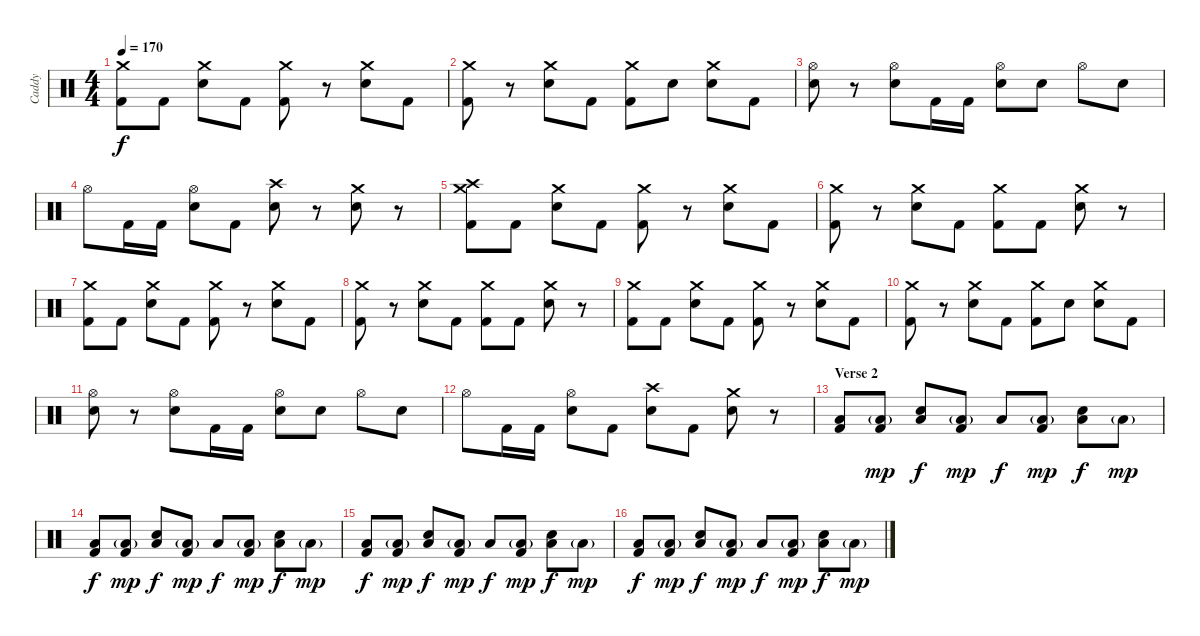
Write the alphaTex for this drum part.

\track ("Caddy" "Caddy") {instrument percussion}
\staff {score}
\articulation defaults
\ts (4 4)
\tempo 170
\clef neutral
\ks c
("Crash medium (hit)" "Kick (hit) 2").8{dy f} "Kick (hit) 2".8 ("Crash medium (hit)" "Electric Snare (hit)").8 "Kick (hit) 2".8 ("Crash medium (hit)" "Kick (hit) 2").8 r.8 ("Crash medium (hit)" "Electric Snare (hit)").8 "Kick (hit) 2".8 |
("Crash medium (hit)" "Kick (hit) 2").8 r.8 ("Crash medium (hit)" "Electric Snare (hit)").8 "Kick (hit) 2".8 ("Crash medium (hit)" "Kick (hit) 2").8 "Electric Snare (hit)".8 ("Crash medium (hit)" "Electric Snare (hit)").8 "Kick (hit) 2".8 |
("Hi-Hat (open)" "Electric Snare (hit)").8 r.8 ("Hi-Hat (open)" "Electric Snare (hit)").8 "Kick (hit) 2".16 "Kick (hit) 2".16 ("Hi-Hat (open)" "Electric Snare (hit)").8 "Electric Snare (hit)".8 "Hi-Hat (open)".8 "Electric Snare (hit)".8 |
"Hi-Hat (open)".8 "Kick (hit) 2".16 "Kick (hit) 2".16 ("Hi-Hat (open)" "Electric Snare (hit)").8 "Kick (hit) 2".8 ("Crash high (hit)" "Electric Snare (hit)").8 r.8 ("Crash medium (hit)" "Electric Snare (hit)").8 r.8 |
("Crash high (hit)" "Crash medium (hit)" "Kick (hit) 2").8 "Kick (hit) 2".8 ("Crash medium (hit)" "Electric Snare (hit)").8 "Kick (hit) 2".8 ("Crash medium (hit)" "Kick (hit) 2").8 r.8 ("Crash medium (hit)" "Electric Snare (hit)").8 "Kick (hit) 2".8 |
("Crash medium (hit)" "Kick (hit) 2").8 r.8 ("Crash medium (hit)" "Electric Snare (hit)").8 "Kick (hit) 2".8 ("Crash medium (hit)" "Kick (hit) 2").8 "Kick (hit) 2".8 ("Crash medium (hit)" "Electric Snare (hit)").8 r.8 |
("Crash medium (hit)" "Kick (hit) 2").8 "Kick (hit) 2".8 ("Crash medium (hit)" "Electric Snare (hit)").8 "Kick (hit) 2".8 ("Crash medium (hit)" "Kick (hit) 2").8 r.8 ("Crash medium (hit)" "Electric Snare (hit)").8 "Kick (hit) 2".8 |
("Crash medium (hit)" "Kick (hit) 2").8 r.8 ("Crash medium (hit)" "Electric Snare (hit)").8 "Kick (hit) 2".8 ("Crash medium (hit)" "Kick (hit) 2").8 "Kick (hit) 2".8 ("Crash medium (hit)" "Electric Snare (hit)").8 r.8 |
("Crash medium (hit)" "Kick (hit) 2").8 "Kick (hit) 2".8 ("Crash medium (hit)" "Electric Snare (hit)").8 "Kick (hit) 2".8 ("Crash medium (hit)" "Kick (hit) 2").8 r.8 ("Crash medium (hit)" "Electric Snare (hit)").8 "Kick (hit) 2".8 |
("Crash medium (hit)" "Kick (hit) 2").8 r.8 ("Crash medium (hit)" "Electric Snare (hit)").8 "Kick (hit) 2".8 ("Crash medium (hit)" "Kick (hit) 2").8 "Electric Snare (hit)".8 ("Crash medium (hit)" "Electric Snare (hit)").8 "Kick (hit) 2".8 |
("Hi-Hat (open)" "Electric Snare (hit)").8 r.8 ("Hi-Hat (open)" "Electric Snare (hit)").8 "Kick (hit) 2".16 "Kick (hit) 2".16 ("Hi-Hat (open)" "Electric Snare (hit)").8 "Electric Snare (hit)".8 "Hi-Hat (open)".8 "Electric Snare (hit)".8 |
"Hi-Hat (open)".8 "Kick (hit) 2".16 "Kick (hit) 2".16 ("Hi-Hat (open)" "Electric Snare (hit)").8 "Kick (hit) 2".8 ("Crash high (hit)" "Electric Snare (hit)").8 "Kick (hit) 2".8 ("Crash medium (hit)" "Electric Snare (hit)").8 r.8 |
\section ("" "Verse 2")
("Low Floor Tom (hit)" "Kick (hit) 2").8 ("Low Floor Tom (hit)"{g} "Kick (hit) 2").8{dy mp} ("Electric Snare (hit)" "Low Floor Tom (hit)").8{dy f} ("Low Floor Tom (hit)"{g} "Kick (hit) 2").8{dy mp} "Low Floor Tom (hit)".8{dy f} ("Low Floor Tom (hit)"{g} "Kick (hit) 2").8{dy mp} ("Electric Snare (hit)" "Low Floor Tom (hit)").8{dy f} "Low Floor Tom (hit)"{g}.8{dy mp} |
("Low Floor Tom (hit)" "Kick (hit) 2").8{dy f} ("Low Floor Tom (hit)"{g} "Kick (hit) 2").8{dy mp} ("Electric Snare (hit)" "Low Floor Tom (hit)").8{dy f} ("Low Floor Tom (hit)"{g} "Kick (hit) 2").8{dy mp} "Low Floor Tom (hit)".8{dy f} ("Low Floor Tom (hit)"{g} "Kick (hit) 2").8{dy mp} ("Electric Snare (hit)" "Low Floor Tom (hit)").8{dy f} "Low Floor Tom (hit)"{g}.8{dy mp} |
("Low Floor Tom (hit)" "Kick (hit) 2").8{dy f} ("Low Floor Tom (hit)"{g} "Kick (hit) 2").8{dy mp} ("Electric Snare (hit)" "Low Floor Tom (hit)").8{dy f} ("Low Floor Tom (hit)"{g} "Kick (hit) 2").8{dy mp} "Low Floor Tom (hit)".8{dy f} ("Low Floor Tom (hit)"{g} "Kick (hit) 2").8{dy mp} ("Electric Snare (hit)" "Low Floor Tom (hit)").8{dy f} "Low Floor Tom (hit)"{g}.8{dy mp} |
("Low Floor Tom (hit)" "Kick (hit) 2").8{dy f} ("Low Floor Tom (hit)"{g} "Kick (hit) 2").8{dy mp} ("Electric Snare (hit)" "Low Floor Tom (hit)").8{dy f} ("Low Floor Tom (hit)"{g} "Kick (hit) 2").8{dy mp} "Low Floor Tom (hit)".8{dy f} ("Low Floor Tom (hit)"{g} "Kick (hit) 2").8{dy mp} ("Electric Snare (hit)" "Low Floor Tom (hit)").8{dy f} "Low Floor Tom (hit)"{g}.8{dy mp}
